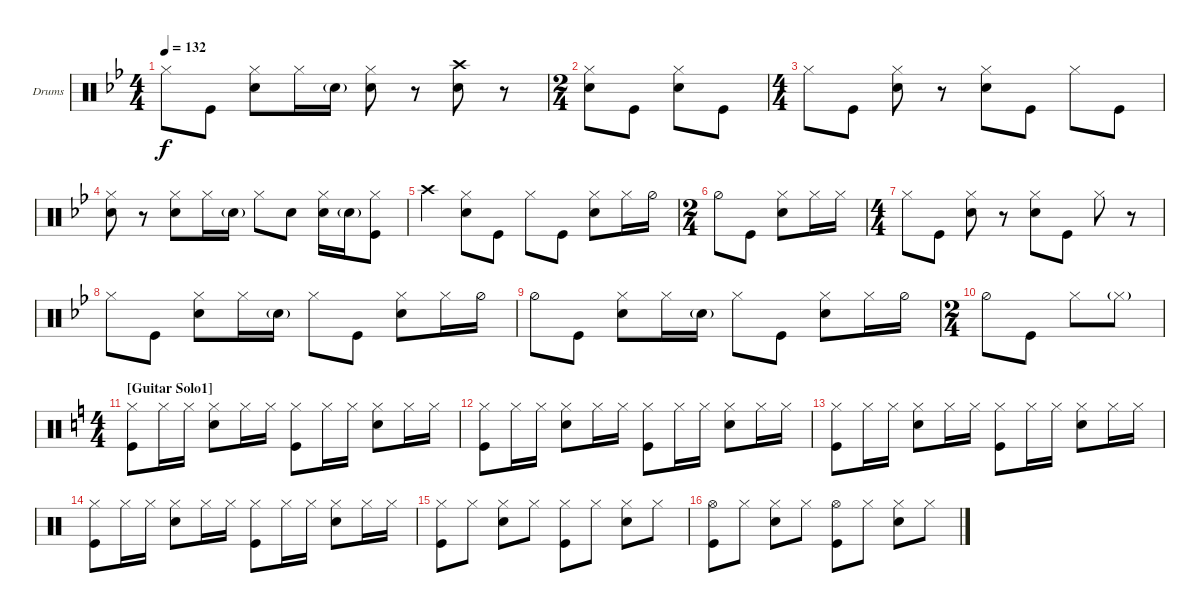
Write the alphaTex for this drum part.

\bracketExtendMode groupsimilarinstruments
\firstSystemTrackNameOrientation horizontal
\otherSystemsTrackNameOrientation horizontal
\track ("Drumkit" "Drums") {instrument percussion}
\staff {score}
\articulation defaults
\ts (4 4)
\tempo 132
\clef neutral
\ks gminor "Hi-Hat (closed)".8{dy f} "Kick (hit)".8
("Hi-Hat (closed)" "Snare (hit) 2").8 "Hi-Hat (closed)".16 "Snare (hit) 2"{g}.16 ("Hi-Hat (closed)" "Snare (hit) 2").8 r.8 ("Snare (hit) 2" "Crash high (hit)").8 r.8 |
\ts (2 4)
("Hi-Hat (closed)" "Snare (hit) 2").8 "Kick (hit)".8 ("Hi-Hat (closed)" "Snare (hit) 2").8 "Kick (hit)".8 |
\ts (4 4)
"Hi-Hat (closed)".8 "Kick (hit)".8 ("Hi-Hat (closed)" "Snare (hit) 2").8 r.8 ("Hi-Hat (closed)" "Snare (hit) 2").8 "Kick (hit)".8 "Hi-Hat (closed)".8 "Kick (hit)".8 |
("Hi-Hat (closed)" "Snare (hit) 2").8 r.8 ("Hi-Hat (closed)" "Snare (hit) 2").8 "Hi-Hat (closed)".16 "Snare (hit) 2"{g}.16 "Hi-Hat (closed)".8 "Snare (hit) 2".8 ("Hi-Hat (closed)" "Snare (hit) 2").16 "Snare (hit) 2"{g}.16 ("Kick (hit)" "Hi-Hat (closed)").8 |
"Crash high (hit)".4 ("Hi-Hat (closed)" "Snare (hit) 2").8 "Kick (hit)".8 "Hi-Hat (closed)".8 "Kick (hit)".8 ("Hi-Hat (closed)" "Snare (hit) 2").8 "Hi-Hat (closed)".16 "Hi-Hat (half)".16 |
\ts (2 4)
"Hi-Hat (half)".8 "Kick (hit)".8 ("Hi-Hat (closed)" "Snare (hit) 2").8 "Hi-Hat (closed)".16 "Hi-Hat (closed)".16 |
\ts (4 4)
"Hi-Hat (closed)".8 "Kick (hit)".8 ("Hi-Hat (closed)" "Snare (hit) 2").8 r.8 ("Hi-Hat (closed)" "Snare (hit) 2").8 "Kick (hit)".8 "Hi-Hat (closed)".8 r.8 |
"Hi-Hat (closed)".8 "Kick (hit)".8 ("Hi-Hat (closed)" "Snare (hit) 2").8 "Hi-Hat (closed)".16 "Snare (hit) 2"{g}.16 "Hi-Hat (closed)".8 "Kick (hit)".8 ("Hi-Hat (closed)" "Snare (hit) 2").8 "Hi-Hat (closed)".16 "Hi-Hat (half)".16 |
"Hi-Hat (half)".8 "Kick (hit)".8 ("Hi-Hat (closed)" "Snare (hit) 2").8 "Hi-Hat (closed)".16 "Snare (hit) 2"{g}.16 "Hi-Hat (closed)".8 "Kick (hit)".8 ("Hi-Hat (closed)" "Snare (hit) 2").8 "Hi-Hat (closed)".16 "Hi-Hat (half)".16 |
\ts (2 4)
"Hi-Hat (half)".8 "Kick (hit)".8 "Hi-Hat (closed)".8 "Hi-Hat (closed)"{g}.8 |
\ts (4 4)
\section ("" "[Guitar Solo1]")
\ks c
("Hi-Hat (closed)" "Kick (hit)").8 "Hi-Hat (closed)".16 "Hi-Hat (closed)".16 ("Hi-Hat (closed)" "Snare (hit) 2").8 "Hi-Hat (closed)".16 "Hi-Hat (closed)".16 ("Hi-Hat (closed)" "Kick (hit)").8 "Hi-Hat (closed)".16 "Hi-Hat (closed)".16 ("Hi-Hat (closed)" "Snare (hit) 2").8 "Hi-Hat (closed)".16 "Hi-Hat (closed)".16 |
("Hi-Hat (closed)" "Kick (hit)").8 "Hi-Hat (closed)".16 "Hi-Hat (closed)".16 ("Hi-Hat (closed)" "Snare (hit) 2").8 "Hi-Hat (closed)".16 "Hi-Hat (closed)".16 ("Hi-Hat (closed)" "Kick (hit)").8 "Hi-Hat (closed)".16 "Hi-Hat (closed)".16 ("Hi-Hat (closed)" "Snare (hit) 2").8 "Hi-Hat (closed)".16 "Hi-Hat (closed)".16 |
("Hi-Hat (closed)" "Kick (hit)").8 "Hi-Hat (closed)".16 "Hi-Hat (closed)".16 ("Hi-Hat (closed)" "Snare (hit) 2").8 "Hi-Hat (closed)".16 "Hi-Hat (closed)".16 ("Hi-Hat (closed)" "Kick (hit)").8 "Hi-Hat (closed)".16 "Hi-Hat (closed)".16 ("Hi-Hat (closed)" "Snare (hit) 2").8 "Hi-Hat (closed)".16 "Hi-Hat (closed)".16 |
("Hi-Hat (closed)" "Kick (hit)").8 "Hi-Hat (closed)".16 "Hi-Hat (closed)".16 ("Hi-Hat (closed)" "Snare (hit) 2").8 "Hi-Hat (closed)".16 "Hi-Hat (closed)".16 ("Hi-Hat (closed)" "Kick (hit)").8 "Hi-Hat (closed)".16 "Hi-Hat (closed)".16 ("Hi-Hat (closed)" "Snare (hit) 2").8 "Hi-Hat (closed)".16 "Hi-Hat (closed)".16 |
("Hi-Hat (closed)" "Kick (hit)").8 "Hi-Hat (closed)".8 ("Hi-Hat (closed)" "Snare (hit) 2").8 "Hi-Hat (closed)".8 ("Hi-Hat (closed)" "Kick (hit)").8 "Hi-Hat (closed)".8 ("Snare (hit) 2" "Hi-Hat (closed)").8 "Hi-Hat (closed)".8 |
("Hi-Hat (open)" "Kick (hit)").8 "Hi-Hat (closed)".8 ("Hi-Hat (closed)" "Snare (hit) 2").8 "Hi-Hat (closed)".8 ("Hi-Hat (open)" "Kick (hit)").8 "Hi-Hat (closed)".8 ("Snare (hit) 2" "Hi-Hat (closed)").8 "Hi-Hat (closed)".8
